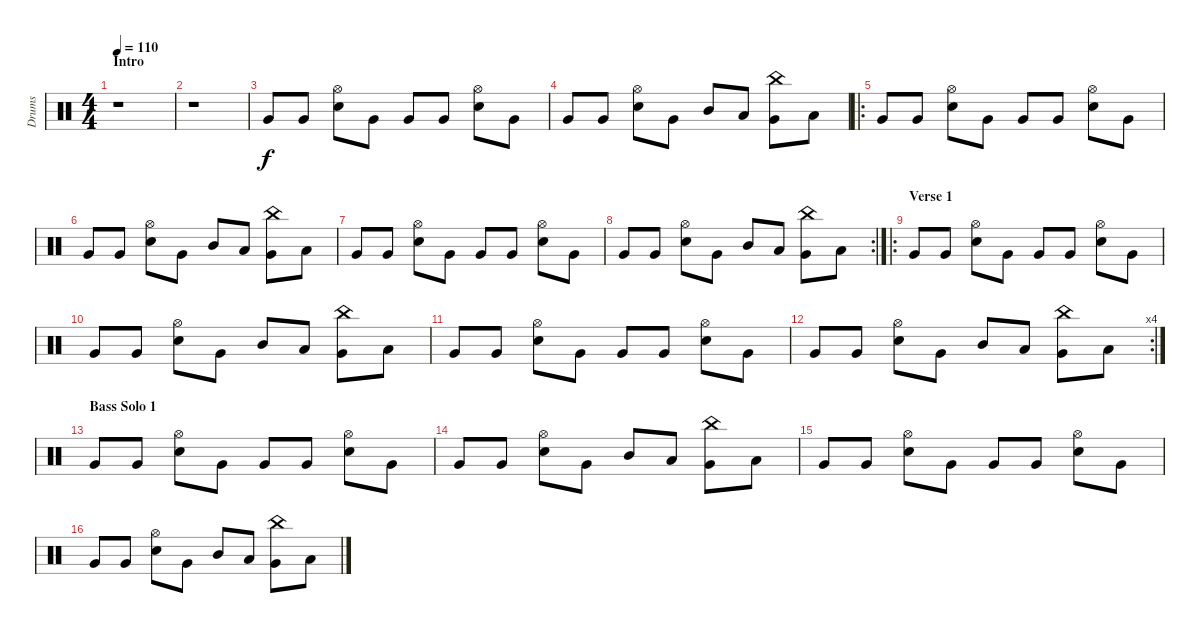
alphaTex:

\track ("Drums" "Drums") {instrument percussion}
\staff {score}
\articulation defaults
\ts (4 4)
\section ("" "Intro")
\tempo 110
\clef neutral
\ks c
r.1{dy f} |
r.1 |
"Very Low Tom (hit)".8 "Very Low Tom (hit)".8 ("Hi-Hat (open)" "Snare (hit) 2").8 "Very Low Tom (hit)".8 "Very Low Tom (hit)".8 "Very Low Tom (hit)".8 ("Hi-Hat (open)" "Snare (hit) 2").8 "Very Low Tom (hit)".8 |
"Very Low Tom (hit)".8 "Very Low Tom (hit)".8 ("Hi-Hat (open)" "Snare (hit) 2").8 "Very Low Tom (hit)".8 "Mid Tom (hit)".8 "Low Tom (hit)".8 ("China (hit)" "Very Low Tom (hit)").8 "Low Floor Tom (hit)".8 |
\ro "Very Low Tom (hit)".8 "Very Low Tom (hit)".8
("Hi-Hat (open)" "Snare (hit) 2").8 "Very Low Tom (hit)".8 "Very Low Tom (hit)".8 "Very Low Tom (hit)".8 ("Hi-Hat (open)" "Snare (hit) 2").8 "Very Low Tom (hit)".8 |
"Very Low Tom (hit)".8 "Very Low Tom (hit)".8 ("Hi-Hat (open)" "Snare (hit) 2").8 "Very Low Tom (hit)".8 "Mid Tom (hit)".8 "Low Tom (hit)".8 ("China (hit)" "Very Low Tom (hit)").8 "Low Floor Tom (hit)".8 |
"Very Low Tom (hit)".8 "Very Low Tom (hit)".8 ("Hi-Hat (open)" "Snare (hit) 2").8 "Very Low Tom (hit)".8 "Very Low Tom (hit)".8 "Very Low Tom (hit)".8 ("Hi-Hat (open)" "Snare (hit) 2").8 "Very Low Tom (hit)".8 |
\rc 2 "Very Low Tom (hit)".8 "Very Low Tom (hit)".8
("Hi-Hat (open)" "Snare (hit) 2").8 "Very Low Tom (hit)".8 "Mid Tom (hit)".8 "Low Tom (hit)".8 ("China (hit)" "Very Low Tom (hit)").8 "Low Floor Tom (hit)".8 |
\ro
\section ("" "Verse 1")
"Very Low Tom (hit)".8 "Very Low Tom (hit)".8 ("Hi-Hat (open)" "Snare (hit) 2").8 "Very Low Tom (hit)".8 "Very Low Tom (hit)".8 "Very Low Tom (hit)".8 ("Hi-Hat (open)" "Snare (hit) 2").8 "Very Low Tom (hit)".8 |
"Very Low Tom (hit)".8 "Very Low Tom (hit)".8 ("Hi-Hat (open)" "Snare (hit) 2").8 "Very Low Tom (hit)".8 "Mid Tom (hit)".8 "Low Tom (hit)".8 ("China (hit)" "Very Low Tom (hit)").8 "Low Floor Tom (hit)".8 |
"Very Low Tom (hit)".8 "Very Low Tom (hit)".8 ("Hi-Hat (open)" "Snare (hit) 2").8 "Very Low Tom (hit)".8 "Very Low Tom (hit)".8 "Very Low Tom (hit)".8 ("Hi-Hat (open)" "Snare (hit) 2").8 "Very Low Tom (hit)".8 |
\rc 4 "Very Low Tom (hit)".8 "Very Low Tom (hit)".8
("Hi-Hat (open)" "Snare (hit) 2").8 "Very Low Tom (hit)".8 "Mid Tom (hit)".8 "Low Tom (hit)".8 ("China (hit)" "Very Low Tom (hit)").8 "Low Floor Tom (hit)".8 |
\section ("" "Bass Solo 1")
"Very Low Tom (hit)".8 "Very Low Tom (hit)".8 ("Hi-Hat (open)" "Snare (hit) 2").8 "Very Low Tom (hit)".8 "Very Low Tom (hit)".8 "Very Low Tom (hit)".8 ("Hi-Hat (open)" "Snare (hit) 2").8 "Very Low Tom (hit)".8 |
"Very Low Tom (hit)".8 "Very Low Tom (hit)".8 ("Hi-Hat (open)" "Snare (hit) 2").8 "Very Low Tom (hit)".8 "Mid Tom (hit)".8 "Low Tom (hit)".8 ("China (hit)" "Very Low Tom (hit)").8 "Low Floor Tom (hit)".8 |
"Very Low Tom (hit)".8 "Very Low Tom (hit)".8 ("Hi-Hat (open)" "Snare (hit) 2").8 "Very Low Tom (hit)".8 "Very Low Tom (hit)".8 "Very Low Tom (hit)".8 ("Hi-Hat (open)" "Snare (hit) 2").8 "Very Low Tom (hit)".8 |
"Very Low Tom (hit)".8 "Very Low Tom (hit)".8 ("Hi-Hat (open)" "Snare (hit) 2").8 "Very Low Tom (hit)".8 "Mid Tom (hit)".8 "Low Tom (hit)".8 ("China (hit)" "Very Low Tom (hit)").8 "Low Floor Tom (hit)".8
